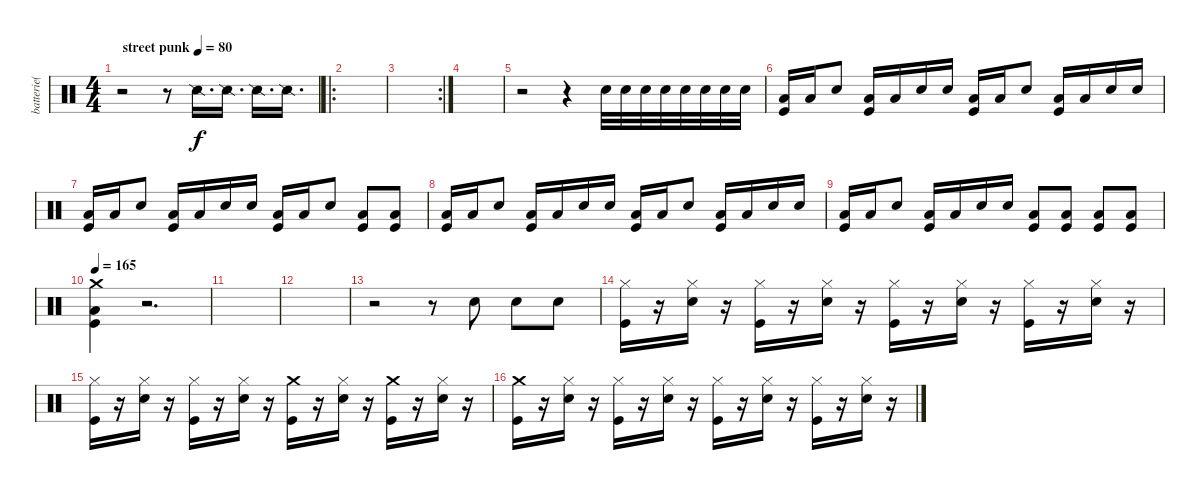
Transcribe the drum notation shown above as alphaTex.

\track ("batterie( Shawn )" "batterie( ") {instrument percussion}
\staff {score}
\articulation defaults
\ts (4 4)
\tempo (80 "street punk")
\clef neutral
\ks c
r.2{dy f} r.8 "Snare (side stick) 2".16{d} "Snare (side stick) 2".16{d} "Snare (side stick) 2".16{d} "Snare (side stick) 2".16{d} |
\ro
|
\rc 2
|
|
r.2 r.4 "Snare (hit) 2".32 "Snare (hit) 2".32 "Snare (hit) 2".32 "Snare (hit) 2".32 "Snare (hit) 2".32 "Snare (hit) 2".32 "Snare (hit) 2".32 "Snare (hit) 2".32 |
("Low Floor Tom (hit)" "Kick (hit)").16 "Low Floor Tom (hit)".16 "Snare (hit) 2".8 ("Low Floor Tom (hit)" "Kick (hit)").16 "Low Floor Tom (hit)".16 "Snare (hit) 2".16 "Snare (hit) 2".16 ("Low Floor Tom (hit)" "Kick (hit)").16 "Low Floor Tom (hit)".16 "Snare (hit) 2".8 ("Low Floor Tom (hit)" "Kick (hit)").16 "Low Floor Tom (hit)".16 "Snare (hit) 2".16 "Snare (hit) 2".16 |
("Low Floor Tom (hit)" "Kick (hit)").16 "Low Floor Tom (hit)".16 "Snare (hit) 2".8 ("Low Floor Tom (hit)" "Kick (hit)").16 "Low Floor Tom (hit)".16 "Snare (hit) 2".16 "Snare (hit) 2".16 ("Low Floor Tom (hit)" "Kick (hit)").16 "Low Floor Tom (hit)".16 "Snare (hit) 2".8 ("Low Floor Tom (hit)" "Kick (hit)").8 ("Low Floor Tom (hit)" "Kick (hit)").8 |
("Low Floor Tom (hit)" "Kick (hit)").16 "Low Floor Tom (hit)".16 "Snare (hit) 2".8 ("Low Floor Tom (hit)" "Kick (hit)").16 "Low Floor Tom (hit)".16 "Snare (hit) 2".16 "Snare (hit) 2".16 ("Low Floor Tom (hit)" "Kick (hit)").16 "Low Floor Tom (hit)".16 "Snare (hit) 2".8 ("Low Floor Tom (hit)" "Kick (hit)").16 "Low Floor Tom (hit)".16 "Snare (hit) 2".16 "Snare (hit) 2".16 |
("Low Floor Tom (hit)" "Kick (hit)").16 "Low Floor Tom (hit)".16 "Snare (hit) 2".8 ("Low Floor Tom (hit)" "Kick (hit)").16 "Low Floor Tom (hit)".16 "Snare (hit) 2".16 "Snare (hit) 2".16 ("Low Floor Tom (hit)" "Kick (hit)").8 ("Low Floor Tom (hit)" "Kick (hit)").8 ("Low Floor Tom (hit)" "Kick (hit)").8 ("Low Floor Tom (hit)" "Kick (hit)").8 |
\tempo 165
("Crash medium (hit)" "Low Floor Tom (hit)" "Kick (hit)").4 r.2{d} |
|
|
r.2 r.8 "Snare (hit) 2".8 "Snare (hit) 2".8 "Snare (hit) 2".8 |
("Hi-Hat (closed)" "Kick (hit)").16 r.16 ("Hi-Hat (closed)" "Snare (hit) 2").16 r.16 ("Hi-Hat (closed)" "Kick (hit)").16 r.16 ("Hi-Hat (closed)" "Snare (hit) 2").16 r.16 ("Hi-Hat (closed)" "Kick (hit)").16 r.16 ("Hi-Hat (closed)" "Snare (hit) 2").16 r.16 ("Hi-Hat (closed)" "Kick (hit)").16 r.16 ("Hi-Hat (closed)" "Snare (hit) 2").16 r.16 |
("Hi-Hat (closed)" "Kick (hit)").16 r.16 ("Hi-Hat (closed)" "Snare (hit) 2").16 r.16 ("Hi-Hat (closed)" "Kick (hit)").16 r.16 ("Hi-Hat (closed)" "Snare (hit) 2").16 r.16 ("Crash medium (hit)" "Kick (hit)").16 r.16 ("Hi-Hat (closed)" "Snare (hit) 2").16 r.16 ("Crash medium (hit)" "Kick (hit)").16 r.16 ("Hi-Hat (closed)" "Snare (hit) 2").16 r.16 |
("Crash medium (hit)" "Kick (hit)").16 r.16 ("Hi-Hat (closed)" "Snare (hit) 2").16 r.16 ("Hi-Hat (closed)" "Kick (hit)").16 r.16 ("Hi-Hat (closed)" "Snare (hit) 2").16 r.16 ("Hi-Hat (closed)" "Kick (hit)").16 r.16 ("Hi-Hat (closed)" "Snare (hit) 2").16 r.16 ("Hi-Hat (closed)" "Kick (hit)").16 r.16 ("Hi-Hat (closed)" "Snare (hit) 2").16 r.16
